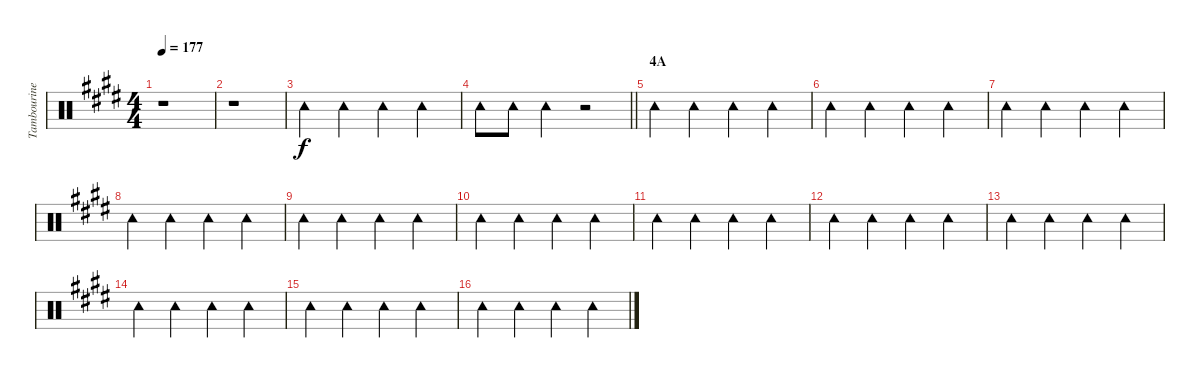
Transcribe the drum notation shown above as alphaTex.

\track ("Tambourine" "Tambourine") {instrument percussion}
\staff {score}
\articulation defaults
\ts (4 4)
\tempo 177
\clef neutral
\ks e
r.1{dy f} |
r.1 |
"Tambourine (hit)".4 "Tambourine (hit)".4 "Tambourine (hit)".4 "Tambourine (hit)".4 |
\barLineRight lightlight "Tambourine (hit)".8 "Tambourine (hit)".8 "Tambourine (hit)".4
r.2 |
\section ("" "4A")
"Tambourine (hit)".4 "Tambourine (hit)".4 "Tambourine (hit)".4 "Tambourine (hit)".4 |
"Tambourine (hit)".4 "Tambourine (hit)".4 "Tambourine (hit)".4 "Tambourine (hit)".4 |
"Tambourine (hit)".4 "Tambourine (hit)".4 "Tambourine (hit)".4 "Tambourine (hit)".4 |
"Tambourine (hit)".4 "Tambourine (hit)".4 "Tambourine (hit)".4 "Tambourine (hit)".4 |
"Tambourine (hit)".4 "Tambourine (hit)".4 "Tambourine (hit)".4 "Tambourine (hit)".4 |
"Tambourine (hit)".4 "Tambourine (hit)".4 "Tambourine (hit)".4 "Tambourine (hit)".4 |
"Tambourine (hit)".4 "Tambourine (hit)".4 "Tambourine (hit)".4 "Tambourine (hit)".4 |
"Tambourine (hit)".4 "Tambourine (hit)".4 "Tambourine (hit)".4 "Tambourine (hit)".4 |
"Tambourine (hit)".4 "Tambourine (hit)".4 "Tambourine (hit)".4 "Tambourine (hit)".4 |
"Tambourine (hit)".4 "Tambourine (hit)".4 "Tambourine (hit)".4 "Tambourine (hit)".4 |
"Tambourine (hit)".4 "Tambourine (hit)".4 "Tambourine (hit)".4 "Tambourine (hit)".4 |
"Tambourine (hit)".4 "Tambourine (hit)".4 "Tambourine (hit)".4 "Tambourine (hit)".4
